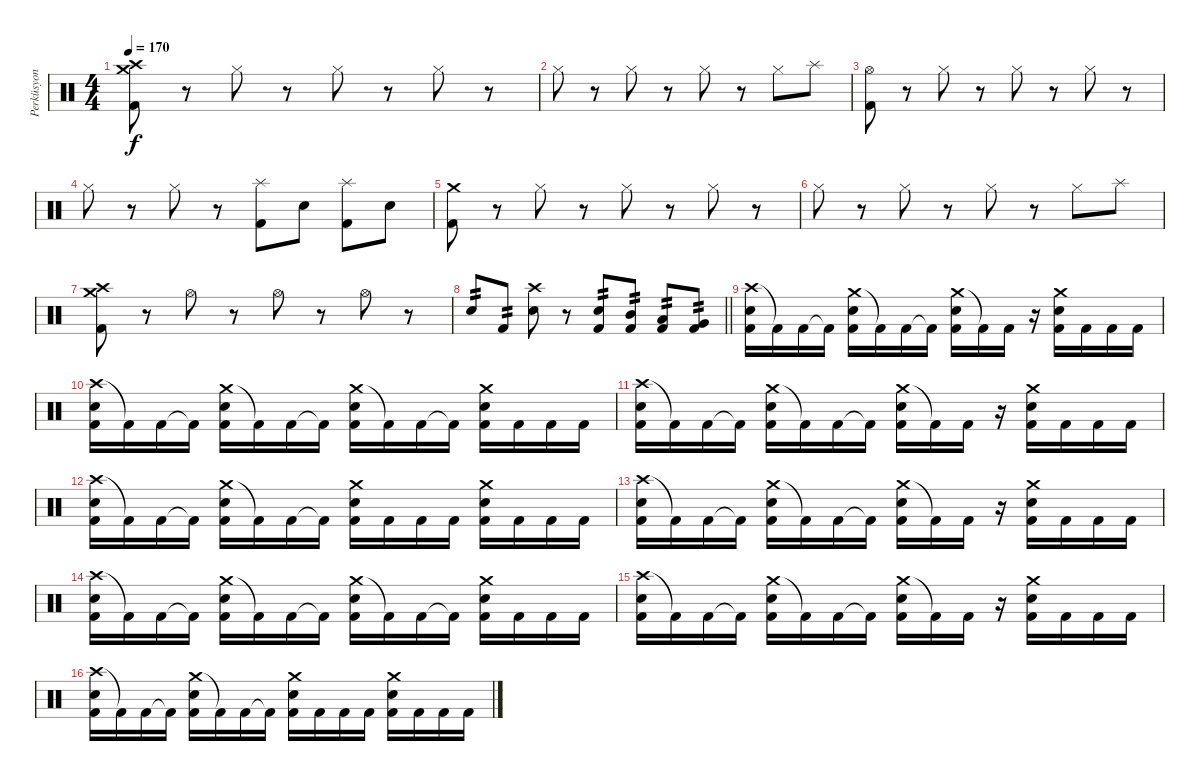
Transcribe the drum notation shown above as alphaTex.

\track ("Perküsyon" "Perküsyon") {instrument percussion}
\staff {score}
\articulation defaults
\ts (4 4)
\section ("" "")
\tempo 170
\clef neutral
\ks c
("Crash medium (hit)" "Crash high (hit)" "Kick (hit) 2").8{dy f} r.8 "Hi-Hat (closed)".8 r.8 "Hi-Hat (closed)".8 r.8 "Hi-Hat (closed)".8 r.8 |
"Hi-Hat (closed)".8 r.8 "Hi-Hat (closed)".8 r.8 "Hi-Hat (closed)".8 r.8 "Hi-Hat (closed)".8 "Splash (hit)".8 |
("Hi-Hat (open)" "Kick (hit) 2").8 r.8 "Hi-Hat (closed)".8 r.8 "Hi-Hat (closed)".8 r.8 "Hi-Hat (closed)".8 r.8 |
"Hi-Hat (closed)".8 r.8 "Hi-Hat (closed)".8 r.8 ("Splash (hit)" "Kick (hit) 2").8 "Snare (hit) 2".8 ("Splash (hit)" "Kick (hit) 2").8 "Snare (hit) 2".8 |
("Crash medium (hit)" "Kick (hit) 2").8 r.8 "Hi-Hat (closed)".8 r.8 "Hi-Hat (closed)".8 r.8 "Hi-Hat (closed)".8 r.8 |
"Hi-Hat (closed)".8 r.8 "Hi-Hat (closed)".8 r.8 "Hi-Hat (closed)".8 r.8 "Hi-Hat (closed)".8 "Splash (hit)".8 |
("Crash high (hit)" "Crash medium (hit)" "Kick (hit) 2").8 r.8 "Hi-Hat (open)".8 r.8 "Hi-Hat (open)".8 r.8 "Hi-Hat (open)".8 r.8 |
\barLineRight lightlight "Snare (hit) 2".8{tp 2} "Kick (hit) 2".8{tp 2}
("Crash high (hit)" "Snare (hit) 2").8 r.8 ("Snare (hit) 2" "Kick (hit) 2").8{tp 2} ("Mid Tom (hit)" "Kick (hit) 2").8{tp 2} ("Low Tom (hit)" "Kick (hit) 2").8{tp 2} ("Very Low Tom (hit)" "Kick (hit) 2").8{tp 2} |
\section ("" "")
("Crash high (hit)" "Snare (hit) 2" "Kick (hit) 2").16 "Kick (hit) 2"{t}.16 "Kick (hit) 2".16 "Kick (hit) 2"{t}.16 ("Crash medium (hit)" "Snare (hit) 2" "Kick (hit) 2").16 "Kick (hit) 2"{t}.16 "Kick (hit) 2".16 "Kick (hit) 2"{t}.16 ("Crash medium (hit)" "Snare (hit) 2" "Kick (hit) 2").16 "Kick (hit) 2"{t}.16 "Kick (hit) 2".16 r.16 ("Crash medium (hit)" "Snare (hit) 2" "Kick (hit) 2").16 "Kick (hit) 2".16 "Kick (hit) 2".16 "Kick (hit) 2".16 |
("Crash high (hit)" "Snare (hit) 2" "Kick (hit) 2").16 "Kick (hit) 2"{t}.16 "Kick (hit) 2".16 "Kick (hit) 2"{t}.16 ("Crash medium (hit)" "Snare (hit) 2" "Kick (hit) 2").16 "Kick (hit) 2"{t}.16 "Kick (hit) 2".16 "Kick (hit) 2"{t}.16 ("Crash medium (hit)" "Snare (hit) 2" "Kick (hit) 2").16 "Kick (hit) 2"{t}.16 "Kick (hit) 2".16 "Kick (hit) 2"{t}.16 ("Crash medium (hit)" "Snare (hit) 2" "Kick (hit) 2").16 "Kick (hit) 2".16 "Kick (hit) 2".16 "Kick (hit) 2".16 |
("Crash high (hit)" "Snare (hit) 2" "Kick (hit) 2").16 "Kick (hit) 2"{t}.16 "Kick (hit) 2".16 "Kick (hit) 2"{t}.16 ("Crash medium (hit)" "Snare (hit) 2" "Kick (hit) 2").16 "Kick (hit) 2"{t}.16 "Kick (hit) 2".16 "Kick (hit) 2"{t}.16 ("Crash medium (hit)" "Snare (hit) 2" "Kick (hit) 2").16 "Kick (hit) 2"{t}.16 "Kick (hit) 2".16 r.16 ("Crash medium (hit)" "Snare (hit) 2" "Kick (hit) 2").16 "Kick (hit) 2".16 "Kick (hit) 2".16 "Kick (hit) 2".16 |
("Crash high (hit)" "Snare (hit) 2" "Kick (hit) 2").16 "Kick (hit) 2"{t}.16 "Kick (hit) 2".16 "Kick (hit) 2"{t}.16 ("Crash medium (hit)" "Snare (hit) 2" "Kick (hit) 2").16 "Kick (hit) 2"{t}.16 "Kick (hit) 2".16 "Kick (hit) 2"{t}.16 ("Crash medium (hit)" "Snare (hit) 2" "Kick (hit) 2").16 "Kick (hit) 2".16 "Kick (hit) 2".16 "Kick (hit) 2".16 ("Crash medium (hit)" "Snare (hit) 2" "Kick (hit) 2").16 "Kick (hit) 2".16 "Kick (hit) 2".16 "Kick (hit) 2".16 |
("Crash high (hit)" "Snare (hit) 2" "Kick (hit) 2").16 "Kick (hit) 2"{t}.16 "Kick (hit) 2".16 "Kick (hit) 2"{t}.16 ("Crash medium (hit)" "Snare (hit) 2" "Kick (hit) 2").16 "Kick (hit) 2"{t}.16 "Kick (hit) 2".16 "Kick (hit) 2"{t}.16 ("Crash medium (hit)" "Snare (hit) 2" "Kick (hit) 2").16 "Kick (hit) 2"{t}.16 "Kick (hit) 2".16 r.16 ("Crash medium (hit)" "Snare (hit) 2" "Kick (hit) 2").16 "Kick (hit) 2".16 "Kick (hit) 2".16 "Kick (hit) 2".16 |
("Crash high (hit)" "Snare (hit) 2" "Kick (hit) 2").16 "Kick (hit) 2"{t}.16 "Kick (hit) 2".16 "Kick (hit) 2"{t}.16 ("Crash medium (hit)" "Snare (hit) 2" "Kick (hit) 2").16 "Kick (hit) 2"{t}.16 "Kick (hit) 2".16 "Kick (hit) 2"{t}.16 ("Crash medium (hit)" "Snare (hit) 2" "Kick (hit) 2").16 "Kick (hit) 2"{t}.16 "Kick (hit) 2".16 "Kick (hit) 2"{t}.16 ("Crash medium (hit)" "Snare (hit) 2" "Kick (hit) 2").16 "Kick (hit) 2".16 "Kick (hit) 2".16 "Kick (hit) 2".16 |
("Crash high (hit)" "Snare (hit) 2" "Kick (hit) 2").16 "Kick (hit) 2"{t}.16 "Kick (hit) 2".16 "Kick (hit) 2"{t}.16 ("Crash medium (hit)" "Snare (hit) 2" "Kick (hit) 2").16 "Kick (hit) 2"{t}.16 "Kick (hit) 2".16 "Kick (hit) 2"{t}.16 ("Crash medium (hit)" "Snare (hit) 2" "Kick (hit) 2").16 "Kick (hit) 2"{t}.16 "Kick (hit) 2".16 r.16 ("Crash medium (hit)" "Snare (hit) 2" "Kick (hit) 2").16 "Kick (hit) 2".16 "Kick (hit) 2".16 "Kick (hit) 2".16 |
("Crash high (hit)" "Snare (hit) 2" "Kick (hit) 2").16 "Kick (hit) 2"{t}.16 "Kick (hit) 2".16 "Kick (hit) 2"{t}.16 ("Crash medium (hit)" "Snare (hit) 2" "Kick (hit) 2").16 "Kick (hit) 2"{t}.16 "Kick (hit) 2".16 "Kick (hit) 2"{t}.16 ("Crash medium (hit)" "Snare (hit) 2" "Kick (hit) 2").16 "Kick (hit) 2".16 "Kick (hit) 2".16 "Kick (hit) 2".16 ("Crash medium (hit)" "Snare (hit) 2" "Kick (hit) 2").16 "Kick (hit) 2".16 "Kick (hit) 2".16 "Kick (hit) 2".16
